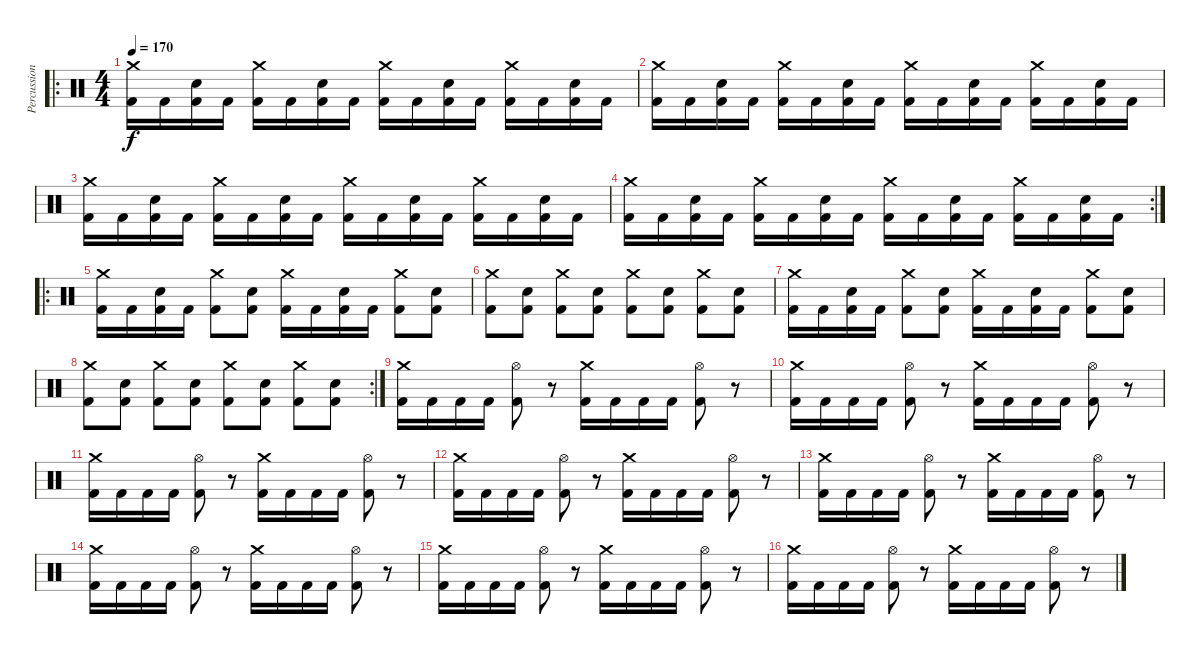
\track ("Percussion" "Percussion") {instrument percussion}
\staff {score}
\articulation defaults
\ro
\ts (4 4)
\tempo 170
\clef neutral
\ks c
("Crash medium (hit)" "Kick (hit) 2").16{dy f} "Kick (hit) 2".16 ("Electric Snare (hit)" "Kick (hit) 2").16 "Kick (hit) 2".16 ("Crash medium (hit)" "Kick (hit) 2").16 "Kick (hit) 2".16 ("Electric Snare (hit)" "Kick (hit) 2").16 "Kick (hit) 2".16 ("Crash medium (hit)" "Kick (hit) 2").16 "Kick (hit) 2".16 ("Electric Snare (hit)" "Kick (hit) 2").16 "Kick (hit) 2".16 ("Crash medium (hit)" "Kick (hit) 2").16 "Kick (hit) 2".16 ("Electric Snare (hit)" "Kick (hit) 2").16 "Kick (hit) 2".16 |
("Crash medium (hit)" "Kick (hit) 2").16 "Kick (hit) 2".16 ("Electric Snare (hit)" "Kick (hit) 2").16 "Kick (hit) 2".16 ("Crash medium (hit)" "Kick (hit) 2").16 "Kick (hit) 2".16 ("Electric Snare (hit)" "Kick (hit) 2").16 "Kick (hit) 2".16 ("Crash medium (hit)" "Kick (hit) 2").16 "Kick (hit) 2".16 ("Electric Snare (hit)" "Kick (hit) 2").16 "Kick (hit) 2".16 ("Crash medium (hit)" "Kick (hit) 2").16 "Kick (hit) 2".16 ("Electric Snare (hit)" "Kick (hit) 2").16 "Kick (hit) 2".16 |
("Crash medium (hit)" "Kick (hit) 2").16 "Kick (hit) 2".16 ("Electric Snare (hit)" "Kick (hit) 2").16 "Kick (hit) 2".16 ("Crash medium (hit)" "Kick (hit) 2").16 "Kick (hit) 2".16 ("Electric Snare (hit)" "Kick (hit) 2").16 "Kick (hit) 2".16 ("Crash medium (hit)" "Kick (hit) 2").16 "Kick (hit) 2".16 ("Electric Snare (hit)" "Kick (hit) 2").16 "Kick (hit) 2".16 ("Crash medium (hit)" "Kick (hit) 2").16 "Kick (hit) 2".16 ("Electric Snare (hit)" "Kick (hit) 2").16 "Kick (hit) 2".16 |
\rc 2
("Crash medium (hit)" "Kick (hit) 2").16 "Kick (hit) 2".16 ("Electric Snare (hit)" "Kick (hit) 2").16 "Kick (hit) 2".16 ("Crash medium (hit)" "Kick (hit) 2").16 "Kick (hit) 2".16 ("Electric Snare (hit)" "Kick (hit) 2").16 "Kick (hit) 2".16 ("Crash medium (hit)" "Kick (hit) 2").16 "Kick (hit) 2".16 ("Electric Snare (hit)" "Kick (hit) 2").16 "Kick (hit) 2".16 ("Crash medium (hit)" "Kick (hit) 2").16 "Kick (hit) 2".16 ("Electric Snare (hit)" "Kick (hit) 2").16 "Kick (hit) 2".16 |
\ro
("Crash medium (hit)" "Kick (hit) 2").16 "Kick (hit) 2".16 ("Electric Snare (hit)" "Kick (hit) 2").16 "Kick (hit) 2".16 ("Crash medium (hit)" "Kick (hit) 2").8 ("Electric Snare (hit)" "Kick (hit) 2").8 ("Crash medium (hit)" "Kick (hit) 2").16 "Kick (hit) 2".16 ("Electric Snare (hit)" "Kick (hit) 2").16 "Kick (hit) 2".16 ("Crash medium (hit)" "Kick (hit) 2").8 ("Electric Snare (hit)" "Kick (hit) 2").8 |
("Crash medium (hit)" "Kick (hit) 2").8 ("Electric Snare (hit)" "Kick (hit) 2").8 ("Crash medium (hit)" "Kick (hit) 2").8 ("Electric Snare (hit)" "Kick (hit) 2").8 ("Crash medium (hit)" "Kick (hit) 2").8 ("Electric Snare (hit)" "Kick (hit) 2").8 ("Crash medium (hit)" "Kick (hit) 2").8 ("Electric Snare (hit)" "Kick (hit) 2").8 |
("Crash medium (hit)" "Kick (hit) 2").16 "Kick (hit) 2".16 ("Electric Snare (hit)" "Kick (hit) 2").16 "Kick (hit) 2".16 ("Crash medium (hit)" "Kick (hit) 2").8 ("Electric Snare (hit)" "Kick (hit) 2").8 ("Crash medium (hit)" "Kick (hit) 2").16 "Kick (hit) 2".16 ("Electric Snare (hit)" "Kick (hit) 2").16 "Kick (hit) 2".16 ("Crash medium (hit)" "Kick (hit) 2").8 ("Electric Snare (hit)" "Kick (hit) 2").8 |
\rc 2
("Crash medium (hit)" "Kick (hit) 2").8 ("Electric Snare (hit)" "Kick (hit) 2").8 ("Crash medium (hit)" "Kick (hit) 2").8 ("Electric Snare (hit)" "Kick (hit) 2").8 ("Crash medium (hit)" "Kick (hit) 2").8 ("Electric Snare (hit)" "Kick (hit) 2").8 ("Crash medium (hit)" "Kick (hit) 2").8 ("Electric Snare (hit)" "Kick (hit) 2").8 |
("Crash medium (hit)" "Kick (hit) 2").16 "Kick (hit) 2".16 "Kick (hit) 2".16 "Kick (hit) 2".16 ("Hi-Hat (open)" "Kick (hit) 2").8 r.8 ("Crash medium (hit)" "Kick (hit) 2").16 "Kick (hit) 2".16 "Kick (hit) 2".16 "Kick (hit) 2".16 ("Hi-Hat (open)" "Kick (hit) 2").8 r.8 |
("Crash medium (hit)" "Kick (hit) 2").16 "Kick (hit) 2".16 "Kick (hit) 2".16 "Kick (hit) 2".16 ("Hi-Hat (open)" "Kick (hit) 2").8 r.8 ("Crash medium (hit)" "Kick (hit) 2").16 "Kick (hit) 2".16 "Kick (hit) 2".16 "Kick (hit) 2".16 ("Hi-Hat (open)" "Kick (hit) 2").8 r.8 |
("Crash medium (hit)" "Kick (hit) 2").16 "Kick (hit) 2".16 "Kick (hit) 2".16 "Kick (hit) 2".16 ("Hi-Hat (open)" "Kick (hit) 2").8 r.8 ("Crash medium (hit)" "Kick (hit) 2").16 "Kick (hit) 2".16 "Kick (hit) 2".16 "Kick (hit) 2".16 ("Hi-Hat (open)" "Kick (hit) 2").8 r.8 |
("Crash medium (hit)" "Kick (hit) 2").16 "Kick (hit) 2".16 "Kick (hit) 2".16 "Kick (hit) 2".16 ("Hi-Hat (open)" "Kick (hit) 2").8 r.8 ("Crash medium (hit)" "Kick (hit) 2").16 "Kick (hit) 2".16 "Kick (hit) 2".16 "Kick (hit) 2".16 ("Hi-Hat (open)" "Kick (hit) 2").8 r.8 |
("Crash medium (hit)" "Kick (hit) 2").16 "Kick (hit) 2".16 "Kick (hit) 2".16 "Kick (hit) 2".16 ("Hi-Hat (open)" "Kick (hit) 2").8 r.8 ("Crash medium (hit)" "Kick (hit) 2").16 "Kick (hit) 2".16 "Kick (hit) 2".16 "Kick (hit) 2".16 ("Hi-Hat (open)" "Kick (hit) 2").8 r.8 |
("Crash medium (hit)" "Kick (hit) 2").16 "Kick (hit) 2".16 "Kick (hit) 2".16 "Kick (hit) 2".16 ("Hi-Hat (open)" "Kick (hit) 2").8 r.8 ("Crash medium (hit)" "Kick (hit) 2").16 "Kick (hit) 2".16 "Kick (hit) 2".16 "Kick (hit) 2".16 ("Hi-Hat (open)" "Kick (hit) 2").8 r.8 |
("Crash medium (hit)" "Kick (hit) 2").16 "Kick (hit) 2".16 "Kick (hit) 2".16 "Kick (hit) 2".16 ("Hi-Hat (open)" "Kick (hit) 2").8 r.8 ("Crash medium (hit)" "Kick (hit) 2").16 "Kick (hit) 2".16 "Kick (hit) 2".16 "Kick (hit) 2".16 ("Hi-Hat (open)" "Kick (hit) 2").8 r.8 |
("Crash medium (hit)" "Kick (hit) 2").16 "Kick (hit) 2".16 "Kick (hit) 2".16 "Kick (hit) 2".16 ("Hi-Hat (open)" "Kick (hit) 2").8 r.8 ("Crash medium (hit)" "Kick (hit) 2").16 "Kick (hit) 2".16 "Kick (hit) 2".16 "Kick (hit) 2".16 ("Hi-Hat (open)" "Kick (hit) 2").8 r.8
